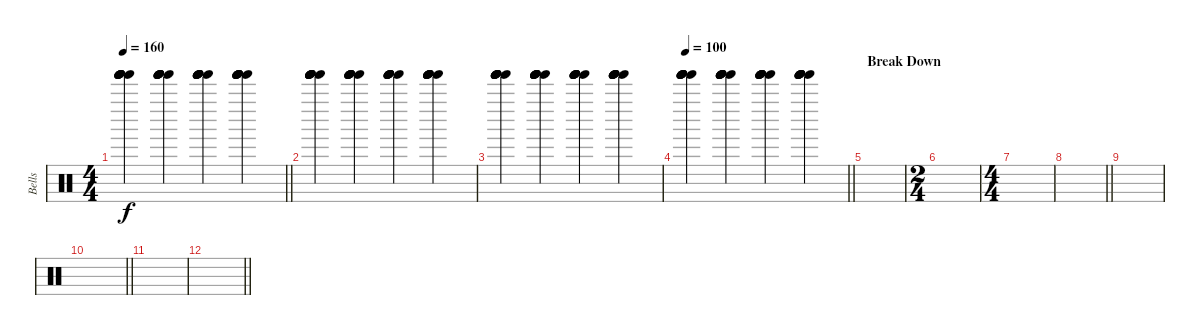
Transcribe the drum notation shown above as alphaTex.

\track ("Bells" "Bells") {instrument percussion}
\staff {score}
\articulation defaults
\ts (4 4)
\tempo 160
\clef neutral
\barLineRight lightlight
\ks c
("Tinkle Bell (hit)" "Tinkle Bell (hit)" "Tinkle Bell (hit)" "Tinkle Bell (hit)" "Tinkle Bell (hit)" "Tinkle Bell (hit)").4{dy f} ("Tinkle Bell (hit)" "Tinkle Bell (hit)" "Tinkle Bell (hit)" "Tinkle Bell (hit)" "Tinkle Bell (hit)" "Tinkle Bell (hit)").4 ("Tinkle Bell (hit)" "Tinkle Bell (hit)" "Tinkle Bell (hit)" "Tinkle Bell (hit)" "Tinkle Bell (hit)" "Tinkle Bell (hit)").4 ("Tinkle Bell (hit)" "Tinkle Bell (hit)" "Tinkle Bell (hit)" "Tinkle Bell (hit)" "Tinkle Bell (hit)" "Tinkle Bell (hit)").4 |
("Tinkle Bell (hit)" "Tinkle Bell (hit)" "Tinkle Bell (hit)" "Tinkle Bell (hit)" "Tinkle Bell (hit)" "Tinkle Bell (hit)").4 ("Tinkle Bell (hit)" "Tinkle Bell (hit)" "Tinkle Bell (hit)" "Tinkle Bell (hit)" "Tinkle Bell (hit)" "Tinkle Bell (hit)").4 ("Tinkle Bell (hit)" "Tinkle Bell (hit)" "Tinkle Bell (hit)" "Tinkle Bell (hit)" "Tinkle Bell (hit)" "Tinkle Bell (hit)").4 ("Tinkle Bell (hit)" "Tinkle Bell (hit)" "Tinkle Bell (hit)" "Tinkle Bell (hit)" "Tinkle Bell (hit)" "Tinkle Bell (hit)").4 |
("Tinkle Bell (hit)" "Tinkle Bell (hit)" "Tinkle Bell (hit)" "Tinkle Bell (hit)" "Tinkle Bell (hit)" "Tinkle Bell (hit)").4 ("Tinkle Bell (hit)" "Tinkle Bell (hit)" "Tinkle Bell (hit)" "Tinkle Bell (hit)" "Tinkle Bell (hit)" "Tinkle Bell (hit)").4 ("Tinkle Bell (hit)" "Tinkle Bell (hit)" "Tinkle Bell (hit)" "Tinkle Bell (hit)" "Tinkle Bell (hit)" "Tinkle Bell (hit)").4 ("Tinkle Bell (hit)" "Tinkle Bell (hit)" "Tinkle Bell (hit)" "Tinkle Bell (hit)" "Tinkle Bell (hit)" "Tinkle Bell (hit)").4 |
\tempo 100
\barLineRight lightlight
("Tinkle Bell (hit)" "Tinkle Bell (hit)" "Tinkle Bell (hit)" "Tinkle Bell (hit)" "Tinkle Bell (hit)" "Tinkle Bell (hit)").4 ("Tinkle Bell (hit)" "Tinkle Bell (hit)" "Tinkle Bell (hit)" "Tinkle Bell (hit)" "Tinkle Bell (hit)" "Tinkle Bell (hit)").4 ("Tinkle Bell (hit)" "Tinkle Bell (hit)" "Tinkle Bell (hit)" "Tinkle Bell (hit)" "Tinkle Bell (hit)" "Tinkle Bell (hit)").4 ("Tinkle Bell (hit)" "Tinkle Bell (hit)" "Tinkle Bell (hit)" "Tinkle Bell (hit)" "Tinkle Bell (hit)" "Tinkle Bell (hit)").4 |
\section ("" "Break Down")
|
\ts (2 4)
|
\ts (4 4)
|
\barLineRight lightlight
|
|
\barLineRight lightlight
|
|
\barLineRight lightlight
